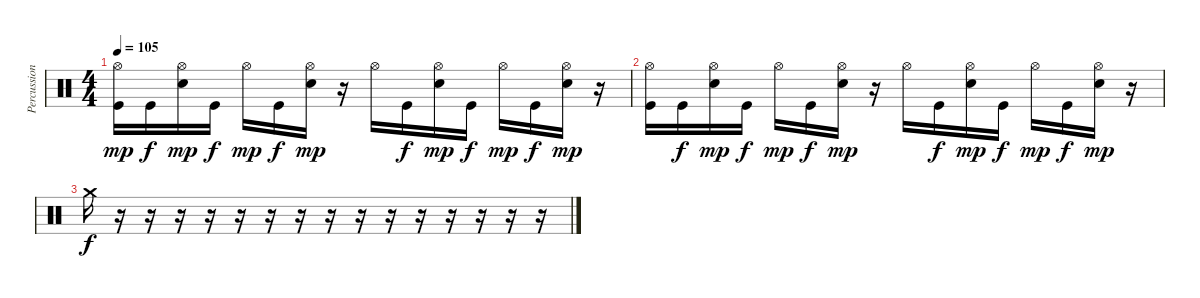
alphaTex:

\track ("Percussion" "Percussion") {instrument percussion}
\staff {score}
\articulation defaults
\ts (4 4)
\tempo 105
\clef neutral
\ks c
("Hi-Hat (open)" "Kick (hit)").16{dy mp} "Kick (hit)".16{dy f} ("Hi-Hat (open)" "Snare (hit) 2").16{dy mp} "Kick (hit)".16{dy f} "Hi-Hat (open)".16{dy mp} "Kick (hit)".16{dy f} ("Hi-Hat (open)" "Snare (hit) 2").16{dy mp} r.16 "Hi-Hat (open)".16 "Kick (hit)".16{dy f} ("Hi-Hat (open)" "Snare (hit) 2").16{dy mp} "Kick (hit)".16{dy f} "Hi-Hat (open)".16{dy mp} "Kick (hit)".16{dy f} ("Hi-Hat (open)" "Snare (hit) 2").16{dy mp} r.16 |
("Hi-Hat (open)" "Kick (hit)").16 "Kick (hit)".16{dy f} ("Hi-Hat (open)" "Snare (hit) 2").16{dy mp} "Kick (hit)".16{dy f} "Hi-Hat (open)".16{dy mp} "Kick (hit)".16{dy f} ("Hi-Hat (open)" "Snare (hit) 2").16{dy mp} r.16 "Hi-Hat (open)".16 "Kick (hit)".16{dy f} ("Hi-Hat (open)" "Snare (hit) 2").16{dy mp} "Kick (hit)".16{dy f} "Hi-Hat (open)".16{dy mp} "Kick (hit)".16{dy f} ("Hi-Hat (open)" "Snare (hit) 2").16{dy mp} r.16 |
"Crash medium (hit)".16{dy f} r.16 r.16 r.16 r.16 r.16 r.16 r.16 r.16 r.16 r.16 r.16 r.16 r.16 r.16 r.16
